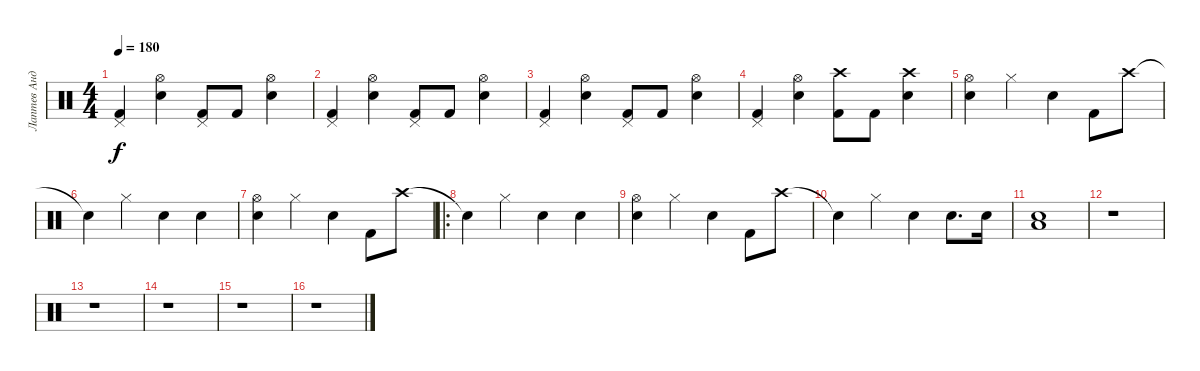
\track ("Лаптев Андрей" "Лаптев Анд") {instrument percussion}
\staff {score}
\articulation defaults
\ts (4 4)
\tempo 180
\clef neutral
\ks c
("Kick (hit) 2" "Pedal Hi-Hat (hit)").4{dy f} ("Snare (hit) 2" "Hi-Hat (open)").4 ("Kick (hit) 2" "Pedal Hi-Hat (hit)").8 "Kick (hit) 2".8 ("Snare (hit) 2" "Hi-Hat (open)").4 |
("Kick (hit) 2" "Pedal Hi-Hat (hit)").4 ("Snare (hit) 2" "Hi-Hat (open)").4 ("Kick (hit) 2" "Pedal Hi-Hat (hit)").8 "Kick (hit) 2".8 ("Snare (hit) 2" "Hi-Hat (open)").4 |
("Kick (hit) 2" "Pedal Hi-Hat (hit)").4 ("Snare (hit) 2" "Hi-Hat (open)").4 ("Kick (hit) 2" "Pedal Hi-Hat (hit)").8 "Kick (hit) 2".8 ("Snare (hit) 2" "Hi-Hat (open)").4 |
("Kick (hit) 2" "Pedal Hi-Hat (hit)").4 ("Snare (hit) 2" "Hi-Hat (open)").4 ("Kick (hit) 2" "Crash high (hit)").8 "Kick (hit) 2".8 ("Snare (hit) 2" "Crash high (hit)").4 |
("Snare (hit) 2" "Hi-Hat (open)").4 "Hi-Hat (closed)".4 "Snare (hit) 2".4 "Kick (hit) 2".8 "Crash high (hit)".8 |
"Snare (hit)"{t}.4 "Hi-Hat (closed)".4 "Snare (hit) 2".4 "Snare (hit) 2".4 |
("Snare (hit) 2" "Hi-Hat (open)").4 "Hi-Hat (closed)".4 "Snare (hit) 2".4 "Kick (hit) 2".8 "Crash high (hit)".8 |
\ro "Snare (hit)"{t}.4 "Hi-Hat (closed)".4 "Snare (hit) 2".4 "Snare (hit) 2".4
|
("Snare (hit) 2" "Hi-Hat (open)").4 "Hi-Hat (closed)".4 "Snare (hit) 2".4 "Kick (hit) 2".8 "Crash high (hit)".8 |
"Snare (hit)"{t}.4 "Hi-Hat (closed)".4 "Snare (hit) 2".4 "Snare (hit) 2".8{d} "Snare (hit) 2".16 |
("Electric Snare (hit)" "Low Tom (hit)").1 |
r.1 |
r.1 |
r.1 |
r.1 |
r.1
